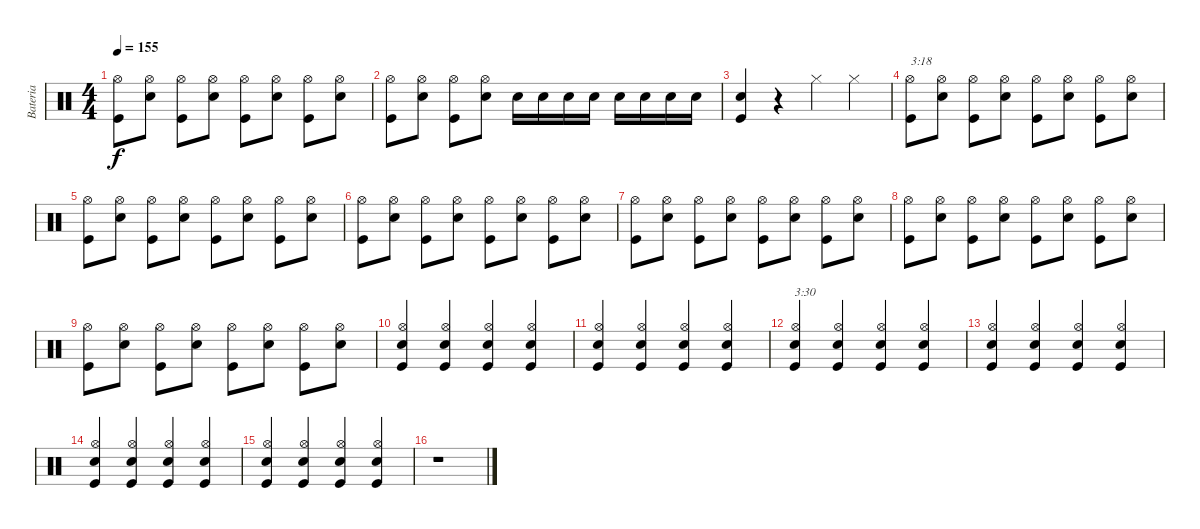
\track ("Bateria" "Bateria") {instrument percussion}
\staff {score}
\articulation defaults
\ts (4 4)
\tempo 155
\clef neutral
\ks c
("Kick (hit)" "Hi-Hat (open)").8{dy f} ("Snare (hit) 2" "Hi-Hat (open)").8 ("Kick (hit)" "Hi-Hat (open)").8 ("Snare (hit) 2" "Hi-Hat (open)").8 ("Kick (hit)" "Hi-Hat (open)").8 ("Snare (hit) 2" "Hi-Hat (open)").8 ("Kick (hit)" "Hi-Hat (open)").8 ("Snare (hit) 2" "Hi-Hat (open)").8 |
("Kick (hit)" "Hi-Hat (open)").8 ("Snare (hit) 2" "Hi-Hat (open)").8 ("Kick (hit)" "Hi-Hat (open)").8 ("Snare (hit) 2" "Hi-Hat (open)").8 "Snare (hit) 2".16 "Snare (hit) 2".16 "Snare (hit) 2".16 "Snare (hit) 2".16 "Snare (hit) 2".16 "Snare (hit) 2".16 "Snare (hit) 2".16 "Snare (hit) 2".16 |
("Kick (hit)" "Snare (hit) 2").4 r.4 "Hi-Hat (closed)".4 "Hi-Hat (closed)".4 |
("Kick (hit)" "Hi-Hat (open)").8{txt "3:18"} ("Snare (hit) 2" "Hi-Hat (open)").8 ("Kick (hit)" "Hi-Hat (open)").8 ("Snare (hit) 2" "Hi-Hat (open)").8 ("Kick (hit)" "Hi-Hat (open)").8 ("Snare (hit) 2" "Hi-Hat (open)").8 ("Kick (hit)" "Hi-Hat (open)").8 ("Snare (hit) 2" "Hi-Hat (open)").8 |
("Kick (hit)" "Hi-Hat (open)").8 ("Snare (hit) 2" "Hi-Hat (open)").8 ("Kick (hit)" "Hi-Hat (open)").8 ("Snare (hit) 2" "Hi-Hat (open)").8 ("Kick (hit)" "Hi-Hat (open)").8 ("Snare (hit) 2" "Hi-Hat (open)").8 ("Kick (hit)" "Hi-Hat (open)").8 ("Snare (hit) 2" "Hi-Hat (open)").8 |
("Kick (hit)" "Hi-Hat (open)").8 ("Snare (hit) 2" "Hi-Hat (open)").8 ("Kick (hit)" "Hi-Hat (open)").8 ("Snare (hit) 2" "Hi-Hat (open)").8 ("Kick (hit)" "Hi-Hat (open)").8 ("Snare (hit) 2" "Hi-Hat (open)").8 ("Kick (hit)" "Hi-Hat (open)").8 ("Snare (hit) 2" "Hi-Hat (open)").8 |
("Kick (hit)" "Hi-Hat (open)").8 ("Snare (hit) 2" "Hi-Hat (open)").8 ("Kick (hit)" "Hi-Hat (open)").8 ("Snare (hit) 2" "Hi-Hat (open)").8 ("Kick (hit)" "Hi-Hat (open)").8 ("Snare (hit) 2" "Hi-Hat (open)").8 ("Kick (hit)" "Hi-Hat (open)").8 ("Snare (hit) 2" "Hi-Hat (open)").8 |
("Kick (hit)" "Hi-Hat (open)").8 ("Snare (hit) 2" "Hi-Hat (open)").8 ("Kick (hit)" "Hi-Hat (open)").8 ("Snare (hit) 2" "Hi-Hat (open)").8 ("Kick (hit)" "Hi-Hat (open)").8 ("Snare (hit) 2" "Hi-Hat (open)").8 ("Kick (hit)" "Hi-Hat (open)").8 ("Snare (hit) 2" "Hi-Hat (open)").8 |
("Kick (hit)" "Hi-Hat (open)").8 ("Snare (hit) 2" "Hi-Hat (open)").8 ("Kick (hit)" "Hi-Hat (open)").8 ("Snare (hit) 2" "Hi-Hat (open)").8 ("Kick (hit)" "Hi-Hat (open)").8 ("Snare (hit) 2" "Hi-Hat (open)").8 ("Kick (hit)" "Hi-Hat (open)").8 ("Snare (hit) 2" "Hi-Hat (open)").8 |
("Kick (hit)" "Snare (hit) 2" "Hi-Hat (open)").4 ("Kick (hit)" "Snare (hit) 2" "Hi-Hat (open)").4 ("Kick (hit)" "Snare (hit) 2" "Hi-Hat (open)").4 ("Kick (hit)" "Snare (hit) 2" "Hi-Hat (open)").4 |
("Kick (hit)" "Snare (hit) 2" "Hi-Hat (open)").4 ("Kick (hit)" "Snare (hit) 2" "Hi-Hat (open)").4 ("Kick (hit)" "Snare (hit) 2" "Hi-Hat (open)").4 ("Kick (hit)" "Snare (hit) 2" "Hi-Hat (open)").4 |
("Kick (hit)" "Snare (hit) 2" "Hi-Hat (open)").4{txt "3:30"} ("Kick (hit)" "Snare (hit) 2" "Hi-Hat (open)").4 ("Kick (hit)" "Snare (hit) 2" "Hi-Hat (open)").4 ("Kick (hit)" "Snare (hit) 2" "Hi-Hat (open)").4 |
("Kick (hit)" "Snare (hit) 2" "Hi-Hat (open)").4 ("Kick (hit)" "Snare (hit) 2" "Hi-Hat (open)").4 ("Kick (hit)" "Snare (hit) 2" "Hi-Hat (open)").4 ("Kick (hit)" "Snare (hit) 2" "Hi-Hat (open)").4 |
("Kick (hit)" "Snare (hit) 2" "Hi-Hat (open)").4 ("Kick (hit)" "Snare (hit) 2" "Hi-Hat (open)").4 ("Kick (hit)" "Snare (hit) 2" "Hi-Hat (open)").4 ("Kick (hit)" "Snare (hit) 2" "Hi-Hat (open)").4 |
("Kick (hit)" "Snare (hit) 2" "Hi-Hat (open)").4 ("Kick (hit)" "Snare (hit) 2" "Hi-Hat (open)").4 ("Kick (hit)" "Snare (hit) 2" "Hi-Hat (open)").4 ("Kick (hit)" "Snare (hit) 2" "Hi-Hat (open)").4 |
r.1
